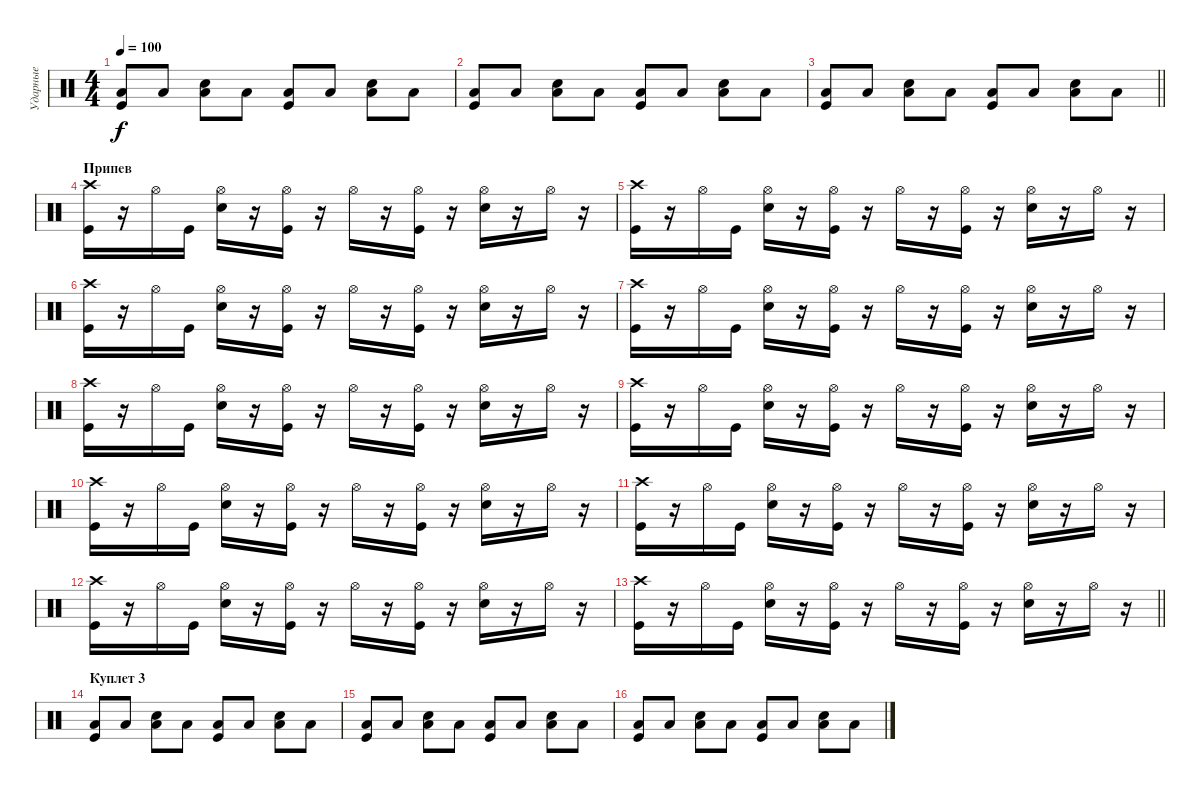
\track ("Ударные" "Ударные") {instrument percussion}
\staff {score}
\articulation defaults
\ts (4 4)
\tempo 100
\clef neutral
\ks c
("Low Tom (hit)" "Kick (hit)").8{dy f} "Low Tom (hit)".8 ("Snare (hit) 2" "Low Tom (hit)").8 "Low Tom (hit)".8 ("Low Tom (hit)" "Kick (hit)").8 "Low Tom (hit)".8 ("Snare (hit) 2" "Low Tom (hit)").8 "Low Tom (hit)".8 |
("Low Tom (hit)" "Kick (hit)").8 "Low Tom (hit)".8 ("Snare (hit) 2" "Low Tom (hit)").8 "Low Tom (hit)".8 ("Low Tom (hit)" "Kick (hit)").8 "Low Tom (hit)".8 ("Snare (hit) 2" "Low Tom (hit)").8 "Low Tom (hit)".8 |
\barLineRight lightlight
("Low Tom (hit)" "Kick (hit)").8 "Low Tom (hit)".8 ("Snare (hit) 2" "Low Tom (hit)").8 "Low Tom (hit)".8 ("Low Tom (hit)" "Kick (hit)").8 "Low Tom (hit)".8 ("Snare (hit) 2" "Low Tom (hit)").8 "Low Tom (hit)".8 |
\section ("" "Припев")
("Crash high (hit)" "Kick (hit)").16 r.16 "Hi-Hat (open)".16 "Kick (hit)".16 ("Electric Snare (hit)" "Hi-Hat (open)").16 r.16 ("Kick (hit)" "Hi-Hat (open)").16 r.16 "Hi-Hat (open)".16 r.16 ("Hi-Hat (open)" "Kick (hit)").16 r.16 ("Hi-Hat (open)" "Electric Snare (hit)").16 r.16 "Hi-Hat (open)".16 r.16 |
("Crash high (hit)" "Kick (hit)").16 r.16 "Hi-Hat (open)".16 "Kick (hit)".16 ("Electric Snare (hit)" "Hi-Hat (open)").16 r.16 ("Kick (hit)" "Hi-Hat (open)").16 r.16 "Hi-Hat (open)".16 r.16 ("Hi-Hat (open)" "Kick (hit)").16 r.16 ("Hi-Hat (open)" "Electric Snare (hit)").16 r.16 "Hi-Hat (open)".16 r.16 |
("Crash high (hit)" "Kick (hit)").16 r.16 "Hi-Hat (open)".16 "Kick (hit)".16 ("Electric Snare (hit)" "Hi-Hat (open)").16 r.16 ("Kick (hit)" "Hi-Hat (open)").16 r.16 "Hi-Hat (open)".16 r.16 ("Hi-Hat (open)" "Kick (hit)").16 r.16 ("Hi-Hat (open)" "Electric Snare (hit)").16 r.16 "Hi-Hat (open)".16 r.16 |
("Crash high (hit)" "Kick (hit)").16 r.16 "Hi-Hat (open)".16 "Kick (hit)".16 ("Electric Snare (hit)" "Hi-Hat (open)").16 r.16 ("Kick (hit)" "Hi-Hat (open)").16 r.16 "Hi-Hat (open)".16 r.16 ("Hi-Hat (open)" "Kick (hit)").16 r.16 ("Hi-Hat (open)" "Electric Snare (hit)").16 r.16 "Hi-Hat (open)".16 r.16 |
("Crash high (hit)" "Kick (hit)").16 r.16 "Hi-Hat (open)".16 "Kick (hit)".16 ("Electric Snare (hit)" "Hi-Hat (open)").16 r.16 ("Kick (hit)" "Hi-Hat (open)").16 r.16 "Hi-Hat (open)".16 r.16 ("Hi-Hat (open)" "Kick (hit)").16 r.16 ("Hi-Hat (open)" "Electric Snare (hit)").16 r.16 "Hi-Hat (open)".16 r.16 |
("Crash high (hit)" "Kick (hit)").16 r.16 "Hi-Hat (open)".16 "Kick (hit)".16 ("Electric Snare (hit)" "Hi-Hat (open)").16 r.16 ("Kick (hit)" "Hi-Hat (open)").16 r.16 "Hi-Hat (open)".16 r.16 ("Hi-Hat (open)" "Kick (hit)").16 r.16 ("Hi-Hat (open)" "Electric Snare (hit)").16 r.16 "Hi-Hat (open)".16 r.16 |
("Crash high (hit)" "Kick (hit)").16 r.16 "Hi-Hat (open)".16 "Kick (hit)".16 ("Electric Snare (hit)" "Hi-Hat (open)").16 r.16 ("Kick (hit)" "Hi-Hat (open)").16 r.16 "Hi-Hat (open)".16 r.16 ("Hi-Hat (open)" "Kick (hit)").16 r.16 ("Hi-Hat (open)" "Electric Snare (hit)").16 r.16 "Hi-Hat (open)".16 r.16 |
("Crash high (hit)" "Kick (hit)").16 r.16 "Hi-Hat (open)".16 "Kick (hit)".16 ("Electric Snare (hit)" "Hi-Hat (open)").16 r.16 ("Kick (hit)" "Hi-Hat (open)").16 r.16 "Hi-Hat (open)".16 r.16 ("Hi-Hat (open)" "Kick (hit)").16 r.16 ("Hi-Hat (open)" "Electric Snare (hit)").16 r.16 "Hi-Hat (open)".16 r.16 |
("Crash high (hit)" "Kick (hit)").16 r.16 "Hi-Hat (open)".16 "Kick (hit)".16 ("Electric Snare (hit)" "Hi-Hat (open)").16 r.16 ("Kick (hit)" "Hi-Hat (open)").16 r.16 "Hi-Hat (open)".16 r.16 ("Hi-Hat (open)" "Kick (hit)").16 r.16 ("Hi-Hat (open)" "Electric Snare (hit)").16 r.16 "Hi-Hat (open)".16 r.16 |
\barLineRight lightlight
("Crash high (hit)" "Kick (hit)").16 r.16 "Hi-Hat (open)".16 "Kick (hit)".16 ("Electric Snare (hit)" "Hi-Hat (open)").16 r.16 ("Kick (hit)" "Hi-Hat (open)").16 r.16 "Hi-Hat (open)".16 r.16 ("Hi-Hat (open)" "Kick (hit)").16 r.16 ("Hi-Hat (open)" "Electric Snare (hit)").16 r.16 "Hi-Hat (open)".16 r.16 |
\section ("" "Куплет 3")
("Low Tom (hit)" "Kick (hit)").8 "Low Tom (hit)".8 ("Snare (hit) 2" "Low Tom (hit)").8 "Low Tom (hit)".8 ("Low Tom (hit)" "Kick (hit)").8 "Low Tom (hit)".8 ("Snare (hit) 2" "Low Tom (hit)").8 "Low Tom (hit)".8 |
("Low Tom (hit)" "Kick (hit)").8 "Low Tom (hit)".8 ("Snare (hit) 2" "Low Tom (hit)").8 "Low Tom (hit)".8 ("Low Tom (hit)" "Kick (hit)").8 "Low Tom (hit)".8 ("Snare (hit) 2" "Low Tom (hit)").8 "Low Tom (hit)".8 |
("Low Tom (hit)" "Kick (hit)").8 "Low Tom (hit)".8 ("Snare (hit) 2" "Low Tom (hit)").8 "Low Tom (hit)".8 ("Low Tom (hit)" "Kick (hit)").8 "Low Tom (hit)".8 ("Snare (hit) 2" "Low Tom (hit)").8 "Low Tom (hit)".8
